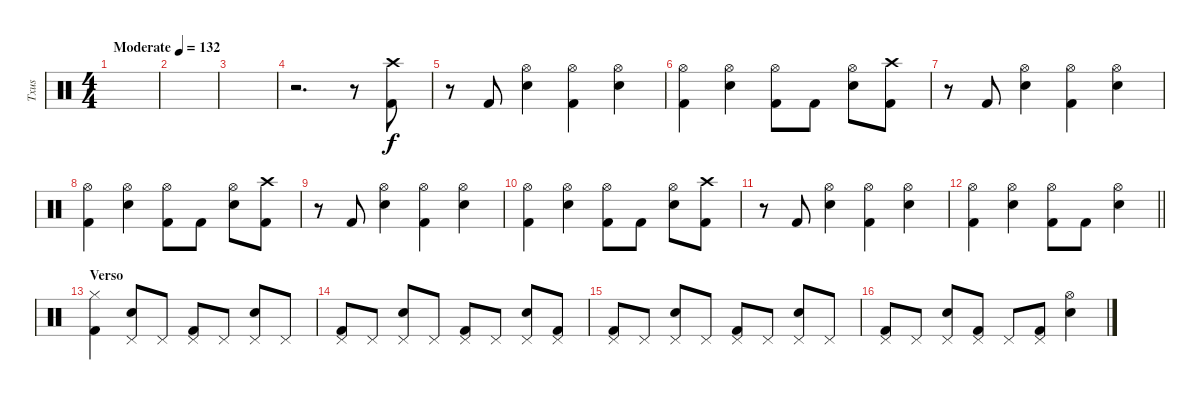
\track ("Txus" "Txus") {instrument percussion}
\staff {score}
\articulation defaults
\ts (4 4)
\tempo (132 "Moderate")
\clef neutral
\ks c
|
|
|
r.2{d} r.8 ("Crash high (hit)" "Kick (hit) 2").8 |
r.8 "Kick (hit) 2".8 ("Hi-Hat (open)" "Electric Snare (hit)").4 ("Hi-Hat (open)" "Kick (hit) 2").4 ("Hi-Hat (open)" "Electric Snare (hit)").4 |
("Hi-Hat (open)" "Kick (hit) 2").4 ("Hi-Hat (open)" "Electric Snare (hit)").4 ("Hi-Hat (open)" "Kick (hit) 2").8 "Kick (hit) 2".8 ("Hi-Hat (open)" "Electric Snare (hit)").8 ("Crash high (hit)" "Kick (hit) 2").8 |
r.8 "Kick (hit) 2".8 ("Hi-Hat (open)" "Electric Snare (hit)").4 ("Hi-Hat (open)" "Kick (hit) 2").4 ("Hi-Hat (open)" "Electric Snare (hit)").4 |
("Hi-Hat (open)" "Kick (hit) 2").4 ("Hi-Hat (open)" "Electric Snare (hit)").4 ("Hi-Hat (open)" "Kick (hit) 2").8 "Kick (hit) 2".8 ("Hi-Hat (open)" "Electric Snare (hit)").8 ("Crash high (hit)" "Kick (hit) 2").8 |
r.8 "Kick (hit) 2".8 ("Hi-Hat (open)" "Electric Snare (hit)").4 ("Hi-Hat (open)" "Kick (hit) 2").4 ("Hi-Hat (open)" "Electric Snare (hit)").4 |
("Hi-Hat (open)" "Kick (hit) 2").4 ("Hi-Hat (open)" "Electric Snare (hit)").4 ("Hi-Hat (open)" "Kick (hit) 2").8 "Kick (hit) 2".8 ("Hi-Hat (open)" "Electric Snare (hit)").8 ("Crash high (hit)" "Kick (hit) 2").8 |
r.8 "Kick (hit) 2".8 ("Hi-Hat (open)" "Electric Snare (hit)").4 ("Hi-Hat (open)" "Kick (hit) 2").4 ("Hi-Hat (open)" "Electric Snare (hit)").4 |
\barLineRight lightlight
("Hi-Hat (open)" "Kick (hit) 2").4 ("Hi-Hat (open)" "Electric Snare (hit)").4 ("Hi-Hat (open)" "Kick (hit) 2").8 "Kick (hit) 2".8 ("Hi-Hat (open)" "Electric Snare (hit)").4 |
\section ("" "Verso")
("Hi-Hat (closed)" "Kick (hit) 2").4 ("Pedal Hi-Hat (hit)" "Electric Snare (hit)").8 "Pedal Hi-Hat (hit)".8 ("Pedal Hi-Hat (hit)" "Kick (hit) 2").8 "Pedal Hi-Hat (hit)".8 ("Pedal Hi-Hat (hit)" "Electric Snare (hit)").8 "Pedal Hi-Hat (hit)".8 |
("Pedal Hi-Hat (hit)" "Kick (hit) 2").8 "Pedal Hi-Hat (hit)".8 ("Pedal Hi-Hat (hit)" "Electric Snare (hit)").8 "Pedal Hi-Hat (hit)".8 ("Pedal Hi-Hat (hit)" "Kick (hit) 2").8 "Pedal Hi-Hat (hit)".8 ("Pedal Hi-Hat (hit)" "Electric Snare (hit)").8 ("Pedal Hi-Hat (hit)" "Kick (hit) 2").8 |
("Pedal Hi-Hat (hit)" "Kick (hit) 2").8 "Pedal Hi-Hat (hit)".8 ("Pedal Hi-Hat (hit)" "Electric Snare (hit)").8 "Pedal Hi-Hat (hit)".8 ("Pedal Hi-Hat (hit)" "Kick (hit) 2").8 "Pedal Hi-Hat (hit)".8 ("Pedal Hi-Hat (hit)" "Electric Snare (hit)").8 "Pedal Hi-Hat (hit)".8 |
("Pedal Hi-Hat (hit)" "Kick (hit) 2").8 "Pedal Hi-Hat (hit)".8 ("Pedal Hi-Hat (hit)" "Electric Snare (hit)").8 ("Pedal Hi-Hat (hit)" "Kick (hit) 2").8 "Pedal Hi-Hat (hit)".8 ("Pedal Hi-Hat (hit)" "Kick (hit) 2").8 ("Hi-Hat (open)" "Electric Snare (hit)").4
